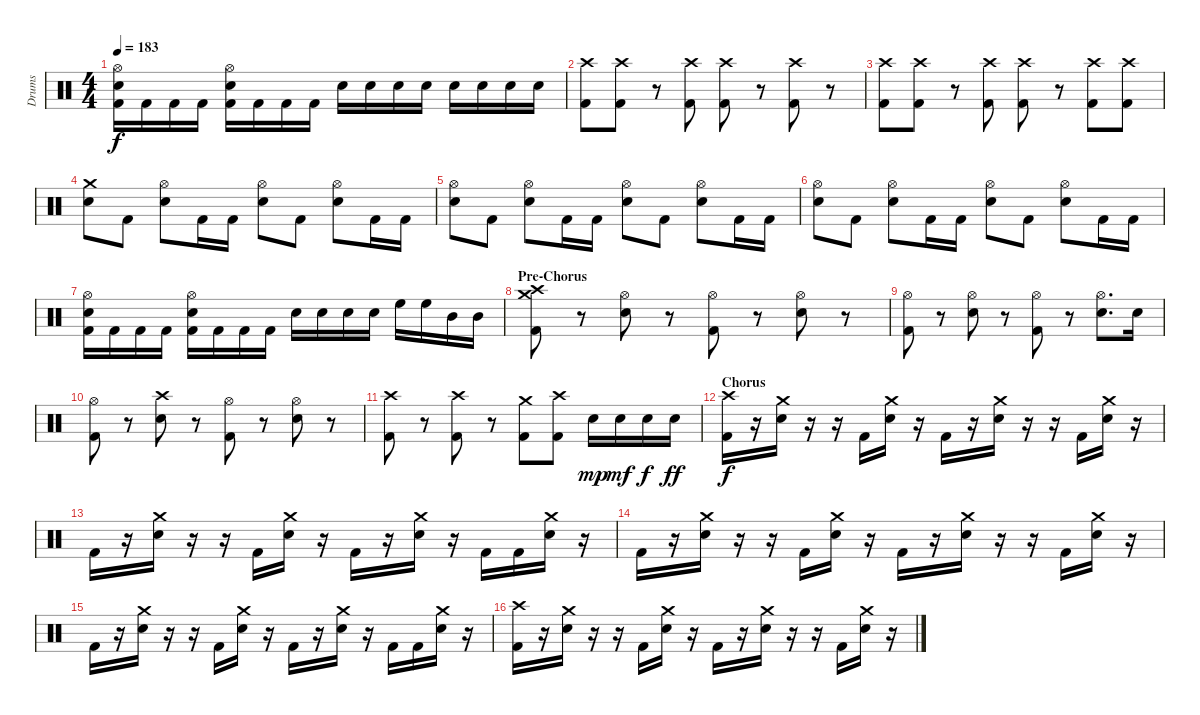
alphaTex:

\track ("Drums" "Drums") {instrument percussion}
\staff {score}
\articulation defaults
\ts (4 4)
\tempo 183
\clef neutral
\ks c
("Hi-Hat (open)" "Electric Snare (hit)" "Kick (hit) 2").16{dy f} "Kick (hit) 2".16 "Kick (hit) 2".16 "Kick (hit) 2".16 ("Hi-Hat (open)" "Electric Snare (hit)" "Kick (hit) 2").16 "Kick (hit) 2".16 "Kick (hit) 2".16 "Kick (hit) 2".16 "Electric Snare (hit)".16 "Electric Snare (hit)".16 "Electric Snare (hit)".16 "Electric Snare (hit)".16 "Electric Snare (hit)".16 "Electric Snare (hit)".16 "Electric Snare (hit)".16 "Electric Snare (hit)".16 |
("Crash high (hit)" "Kick (hit) 2").8 ("Crash high (hit)" "Kick (hit) 2").8 r.8{volume 0} ("Crash high (hit)" "Kick (hit) 2").8{volume 16} ("Crash high (hit)" "Kick (hit) 2").8 r.8{volume 0} ("Crash high (hit)" "Kick (hit) 2").8{volume 16} r.8{volume 0} |
("Crash high (hit)" "Kick (hit) 2").8{volume 16} ("Crash high (hit)" "Kick (hit) 2").8 r.8{volume 0} ("Crash high (hit)" "Kick (hit) 2").8{volume 16} ("Crash high (hit)" "Kick (hit) 2").8 r.8{volume 0} ("Crash high (hit)" "Kick (hit) 2").8{volume 16} ("Crash high (hit)" "Kick (hit) 2").8 |
("Crash medium (hit)" "Electric Snare (hit)").8 "Kick (hit) 2".8 ("Hi-Hat (open)" "Electric Snare (hit)").8 "Kick (hit) 2".16 "Kick (hit) 2".16 ("Hi-Hat (open)" "Electric Snare (hit)").8 "Kick (hit) 2".8 ("Hi-Hat (open)" "Electric Snare (hit)").8 "Kick (hit) 2".16 "Kick (hit) 2".16 |
("Hi-Hat (open)" "Electric Snare (hit)").8 "Kick (hit) 2".8 ("Hi-Hat (open)" "Electric Snare (hit)").8 "Kick (hit) 2".16 "Kick (hit) 2".16 ("Hi-Hat (open)" "Electric Snare (hit)").8 "Kick (hit) 2".8 ("Hi-Hat (open)" "Electric Snare (hit)").8 "Kick (hit) 2".16 "Kick (hit) 2".16 |
("Hi-Hat (open)" "Electric Snare (hit)").8 "Kick (hit) 2".8 ("Hi-Hat (open)" "Electric Snare (hit)").8 "Kick (hit) 2".16 "Kick (hit) 2".16 ("Hi-Hat (open)" "Electric Snare (hit)").8 "Kick (hit) 2".8 ("Hi-Hat (open)" "Electric Snare (hit)").8 "Kick (hit) 2".16 "Kick (hit) 2".16 |
("Hi-Hat (open)" "Electric Snare (hit)" "Kick (hit) 2").16 "Kick (hit) 2".16 "Kick (hit) 2".16 "Kick (hit) 2".16 ("Hi-Hat (open)" "Electric Snare (hit)" "Kick (hit) 2").16 "Kick (hit) 2".16 "Kick (hit) 2".16 "Kick (hit) 2".16 "Electric Snare (hit)".16 "Electric Snare (hit)".16 "Electric Snare (hit)".16 "Electric Snare (hit)".16 "High Floor Tom (hit)".16 "High Floor Tom (hit)".16 "Mid Tom (hit)".16 "Mid Tom (hit)".16 |
\section ("" "Pre-Chorus")
("Crash high (hit)" "Crash medium (hit)" "Kick (hit) 2").8 r.8 ("Hi-Hat (open)" "Electric Snare (hit)").8 r.8 ("Hi-Hat (open)" "Kick (hit) 2").8 r.8 ("Hi-Hat (open)" "Electric Snare (hit)").8 r.8 |
("Hi-Hat (open)" "Kick (hit) 2").8 r.8 ("Hi-Hat (open)" "Electric Snare (hit)").8 r.8 ("Hi-Hat (open)" "Kick (hit) 2").8 r.8 ("Hi-Hat (open)" "Electric Snare (hit)").8{d} "Electric Snare (hit)".16 |
("Hi-Hat (open)" "Kick (hit) 2").8 r.8 ("Crash high (hit)" "Electric Snare (hit)").8 r.8 ("Hi-Hat (open)" "Kick (hit) 2").8 r.8 ("Hi-Hat (open)" "Electric Snare (hit)").8 r.8 |
("Crash high (hit)" "Kick (hit) 2").8{volume 16} r.8{volume 0} ("Crash high (hit)" "Kick (hit) 2").8{volume 16} r.8{volume 0} ("Crash medium (hit)" "Kick (hit) 2").8{volume 16} ("Crash high (hit)" "Kick (hit) 2").8 "Electric Snare (hit)".16{dy mp} "Electric Snare (hit)".16{dy mf} "Electric Snare (hit)".16{dy f} "Electric Snare (hit)".16{dy ff} |
\section ("" "Chorus")
("Crash high (hit)" "Kick (hit) 2").16{dy f} r.16 ("Crash medium (hit)" "Electric Snare (hit)").16 r.16 r.16 "Kick (hit) 2".16 ("Crash medium (hit)" "Electric Snare (hit)").16 r.16 "Kick (hit) 2".16 r.16 ("Crash medium (hit)" "Electric Snare (hit)").16 r.16 r.16 "Kick (hit) 2".16 ("Crash medium (hit)" "Electric Snare (hit)").16 r.16 |
"Kick (hit) 2".16 r.16 ("Crash medium (hit)" "Electric Snare (hit)").16 r.16 r.16 "Kick (hit) 2".16 ("Crash medium (hit)" "Electric Snare (hit)").16 r.16 "Kick (hit) 2".16 r.16 ("Crash medium (hit)" "Electric Snare (hit)").16 r.16 "Kick (hit) 2".16 "Kick (hit) 2".16 ("Crash medium (hit)" "Electric Snare (hit)").16 r.16 |
"Kick (hit) 2".16 r.16 ("Crash medium (hit)" "Electric Snare (hit)").16 r.16 r.16 "Kick (hit) 2".16 ("Crash medium (hit)" "Electric Snare (hit)").16 r.16 "Kick (hit) 2".16 r.16 ("Crash medium (hit)" "Electric Snare (hit)").16 r.16 r.16 "Kick (hit) 2".16 ("Crash medium (hit)" "Electric Snare (hit)").16 r.16 |
"Kick (hit) 2".16 r.16 ("Crash medium (hit)" "Electric Snare (hit)").16 r.16 r.16 "Kick (hit) 2".16 ("Crash medium (hit)" "Electric Snare (hit)").16 r.16 "Kick (hit) 2".16 r.16 ("Crash medium (hit)" "Electric Snare (hit)").16 r.16 "Kick (hit) 2".16 "Kick (hit) 2".16 ("Crash medium (hit)" "Electric Snare (hit)").16 r.16 |
("Crash high (hit)" "Kick (hit) 2").16 r.16 ("Crash medium (hit)" "Electric Snare (hit)").16 r.16 r.16 "Kick (hit) 2".16 ("Crash medium (hit)" "Electric Snare (hit)").16 r.16 "Kick (hit) 2".16 r.16 ("Crash medium (hit)" "Electric Snare (hit)").16 r.16 r.16 "Kick (hit) 2".16 ("Crash medium (hit)" "Electric Snare (hit)").16 r.16
